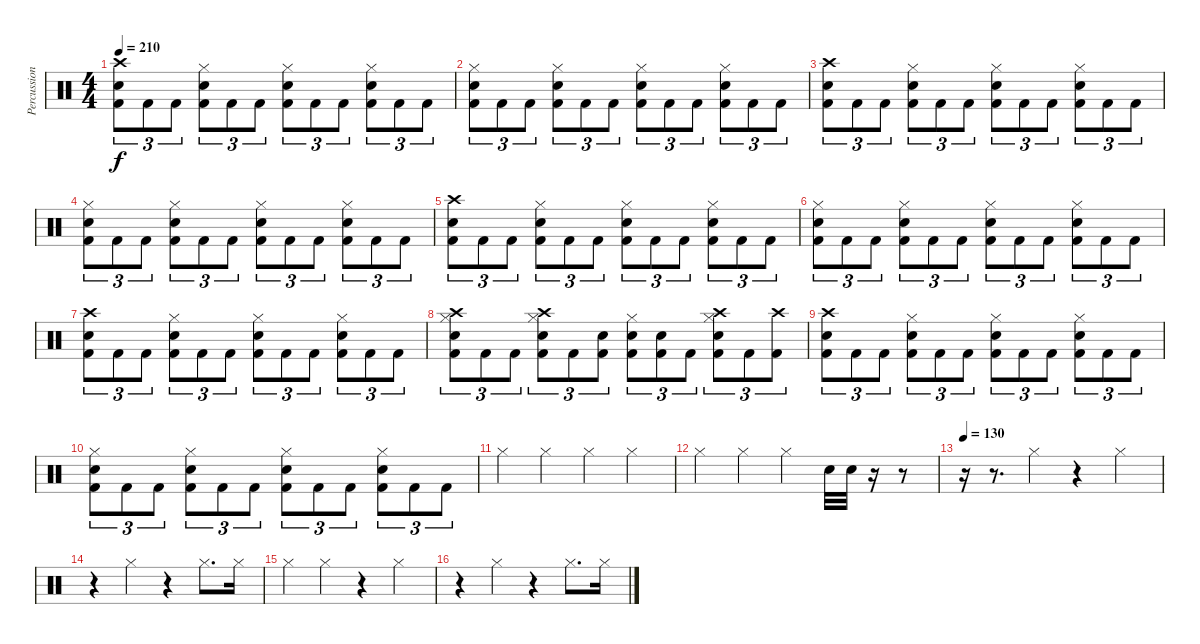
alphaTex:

\track ("Percussion" "Percussion") {instrument percussion}
\staff {score}
\articulation defaults
\ts (4 4)
\tempo 210
\clef neutral
\ks c
("Crash high (hit)" "Electric Snare (hit)" "Kick (hit) 2").8{tu (3 2) dy f} "Kick (hit) 2".8{tu (3 2)} "Kick (hit) 2".8{tu (3 2)} ("Hi-Hat (closed)" "Electric Snare (hit)" "Kick (hit) 2").8{tu (3 2)} "Kick (hit) 2".8{tu (3 2)} "Kick (hit) 2".8{tu (3 2)} ("Hi-Hat (closed)" "Electric Snare (hit)" "Kick (hit) 2").8{tu (3 2)} "Kick (hit) 2".8{tu (3 2)} "Kick (hit) 2".8{tu (3 2)} ("Hi-Hat (closed)" "Electric Snare (hit)" "Kick (hit) 2").8{tu (3 2)} "Kick (hit) 2".8{tu (3 2)} "Kick (hit) 2".8{tu (3 2)} |
("Hi-Hat (closed)" "Electric Snare (hit)" "Kick (hit) 2").8{tu (3 2)} "Kick (hit) 2".8{tu (3 2)} "Kick (hit) 2".8{tu (3 2)} ("Hi-Hat (closed)" "Electric Snare (hit)" "Kick (hit) 2").8{tu (3 2)} "Kick (hit) 2".8{tu (3 2)} "Kick (hit) 2".8{tu (3 2)} ("Hi-Hat (closed)" "Electric Snare (hit)" "Kick (hit) 2").8{tu (3 2)} "Kick (hit) 2".8{tu (3 2)} "Kick (hit) 2".8{tu (3 2)} ("Hi-Hat (closed)" "Electric Snare (hit)" "Kick (hit) 2").8{tu (3 2)} "Kick (hit) 2".8{tu (3 2)} "Kick (hit) 2".8{tu (3 2)} |
("Crash high (hit)" "Electric Snare (hit)" "Kick (hit) 2").8{tu (3 2)} "Kick (hit) 2".8{tu (3 2)} "Kick (hit) 2".8{tu (3 2)} ("Hi-Hat (closed)" "Electric Snare (hit)" "Kick (hit) 2").8{tu (3 2)} "Kick (hit) 2".8{tu (3 2)} "Kick (hit) 2".8{tu (3 2)} ("Hi-Hat (closed)" "Electric Snare (hit)" "Kick (hit) 2").8{tu (3 2)} "Kick (hit) 2".8{tu (3 2)} "Kick (hit) 2".8{tu (3 2)} ("Hi-Hat (closed)" "Electric Snare (hit)" "Kick (hit) 2").8{tu (3 2)} "Kick (hit) 2".8{tu (3 2)} "Kick (hit) 2".8{tu (3 2)} |
("Hi-Hat (closed)" "Electric Snare (hit)" "Kick (hit) 2").8{tu (3 2)} "Kick (hit) 2".8{tu (3 2)} "Kick (hit) 2".8{tu (3 2)} ("Hi-Hat (closed)" "Electric Snare (hit)" "Kick (hit) 2").8{tu (3 2)} "Kick (hit) 2".8{tu (3 2)} "Kick (hit) 2".8{tu (3 2)} ("Hi-Hat (closed)" "Electric Snare (hit)" "Kick (hit) 2").8{tu (3 2)} "Kick (hit) 2".8{tu (3 2)} "Kick (hit) 2".8{tu (3 2)} ("Hi-Hat (closed)" "Electric Snare (hit)" "Kick (hit) 2").8{tu (3 2)} "Kick (hit) 2".8{tu (3 2)} "Kick (hit) 2".8{tu (3 2)} |
("Crash high (hit)" "Electric Snare (hit)" "Kick (hit) 2").8{tu (3 2)} "Kick (hit) 2".8{tu (3 2)} "Kick (hit) 2".8{tu (3 2)} ("Hi-Hat (closed)" "Electric Snare (hit)" "Kick (hit) 2").8{tu (3 2)} "Kick (hit) 2".8{tu (3 2)} "Kick (hit) 2".8{tu (3 2)} ("Hi-Hat (closed)" "Electric Snare (hit)" "Kick (hit) 2").8{tu (3 2)} "Kick (hit) 2".8{tu (3 2)} "Kick (hit) 2".8{tu (3 2)} ("Hi-Hat (closed)" "Electric Snare (hit)" "Kick (hit) 2").8{tu (3 2)} "Kick (hit) 2".8{tu (3 2)} "Kick (hit) 2".8{tu (3 2)} |
("Hi-Hat (closed)" "Electric Snare (hit)" "Kick (hit) 2").8{tu (3 2)} "Kick (hit) 2".8{tu (3 2)} "Kick (hit) 2".8{tu (3 2)} ("Hi-Hat (closed)" "Electric Snare (hit)" "Kick (hit) 2").8{tu (3 2)} "Kick (hit) 2".8{tu (3 2)} "Kick (hit) 2".8{tu (3 2)} ("Hi-Hat (closed)" "Electric Snare (hit)" "Kick (hit) 2").8{tu (3 2)} "Kick (hit) 2".8{tu (3 2)} "Kick (hit) 2".8{tu (3 2)} ("Hi-Hat (closed)" "Electric Snare (hit)" "Kick (hit) 2").8{tu (3 2)} "Kick (hit) 2".8{tu (3 2)} "Kick (hit) 2".8{tu (3 2)} |
("Crash high (hit)" "Electric Snare (hit)" "Kick (hit) 2").8{tu (3 2)} "Kick (hit) 2".8{tu (3 2)} "Kick (hit) 2".8{tu (3 2)} ("Hi-Hat (closed)" "Electric Snare (hit)" "Kick (hit) 2").8{tu (3 2)} "Kick (hit) 2".8{tu (3 2)} "Kick (hit) 2".8{tu (3 2)} ("Hi-Hat (closed)" "Electric Snare (hit)" "Kick (hit) 2").8{tu (3 2)} "Kick (hit) 2".8{tu (3 2)} "Kick (hit) 2".8{tu (3 2)} ("Hi-Hat (closed)" "Electric Snare (hit)" "Kick (hit) 2").8{tu (3 2)} "Kick (hit) 2".8{tu (3 2)} "Kick (hit) 2".8{tu (3 2)} |
("Crash high (hit)" "Hi-Hat (closed)" "Electric Snare (hit)" "Kick (hit) 2").8{tu (3 2)} "Kick (hit) 2".8{tu (3 2)} "Kick (hit) 2".8{tu (3 2)} ("Crash high (hit)" "Hi-Hat (closed)" "Electric Snare (hit)" "Kick (hit) 2").8{tu (3 2)} "Kick (hit) 2".8{tu (3 2)} ("Electric Snare (hit)" "Kick (hit) 2").8{tu (3 2)} ("Hi-Hat (closed)" "Electric Snare (hit)" "Kick (hit) 2").8{tu (3 2)} ("Electric Snare (hit)" "Kick (hit) 2").8{tu (3 2)} "Kick (hit) 2".8{tu (3 2)} ("Crash high (hit)" "Hi-Hat (closed)" "Electric Snare (hit)" "Kick (hit) 2").8{tu (3 2)} "Kick (hit) 2".8{tu (3 2)} ("Crash high (hit)" "Kick (hit) 2").8{tu (3 2)} |
("Crash high (hit)" "Electric Snare (hit)" "Kick (hit) 2").8{tu (3 2)} "Kick (hit) 2".8{tu (3 2)} "Kick (hit) 2".8{tu (3 2)} ("Hi-Hat (closed)" "Electric Snare (hit)" "Kick (hit) 2").8{tu (3 2)} "Kick (hit) 2".8{tu (3 2)} "Kick (hit) 2".8{tu (3 2)} ("Hi-Hat (closed)" "Electric Snare (hit)" "Kick (hit) 2").8{tu (3 2)} "Kick (hit) 2".8{tu (3 2)} "Kick (hit) 2".8{tu (3 2)} ("Hi-Hat (closed)" "Electric Snare (hit)" "Kick (hit) 2").8{tu (3 2)} "Kick (hit) 2".8{tu (3 2)} "Kick (hit) 2".8{tu (3 2)} |
("Hi-Hat (closed)" "Electric Snare (hit)" "Kick (hit) 2").8{tu (3 2)} "Kick (hit) 2".8{tu (3 2)} "Kick (hit) 2".8{tu (3 2)} ("Hi-Hat (closed)" "Electric Snare (hit)" "Kick (hit) 2").8{tu (3 2)} "Kick (hit) 2".8{tu (3 2)} "Kick (hit) 2".8{tu (3 2)} ("Hi-Hat (closed)" "Electric Snare (hit)" "Kick (hit) 2").8{tu (3 2)} "Kick (hit) 2".8{tu (3 2)} "Kick (hit) 2".8{tu (3 2)} ("Hi-Hat (closed)" "Electric Snare (hit)" "Kick (hit) 2").8{tu (3 2)} "Kick (hit) 2".8{tu (3 2)} "Kick (hit) 2".8{tu (3 2)} |
"Hi-Hat (closed)".4 "Hi-Hat (closed)".4 "Hi-Hat (closed)".4 "Hi-Hat (closed)".4 |
"Hi-Hat (closed)".4 "Hi-Hat (closed)".4 "Hi-Hat (closed)".4 "Electric Snare (hit)".32 "Electric Snare (hit)".32 r.16 r.8 |
\tempo 130
r.16 r.8{d} "Hi-Hat (closed)".4 r.4 "Hi-Hat (closed)".4 |
r.4 "Hi-Hat (closed)".4 r.4 "Hi-Hat (closed)".8{d} "Hi-Hat (closed)".16 |
"Hi-Hat (closed)".4 "Hi-Hat (closed)".4 r.4 "Hi-Hat (closed)".4 |
r.4 "Hi-Hat (closed)".4 r.4 "Hi-Hat (closed)".8{d} "Hi-Hat (closed)".16
